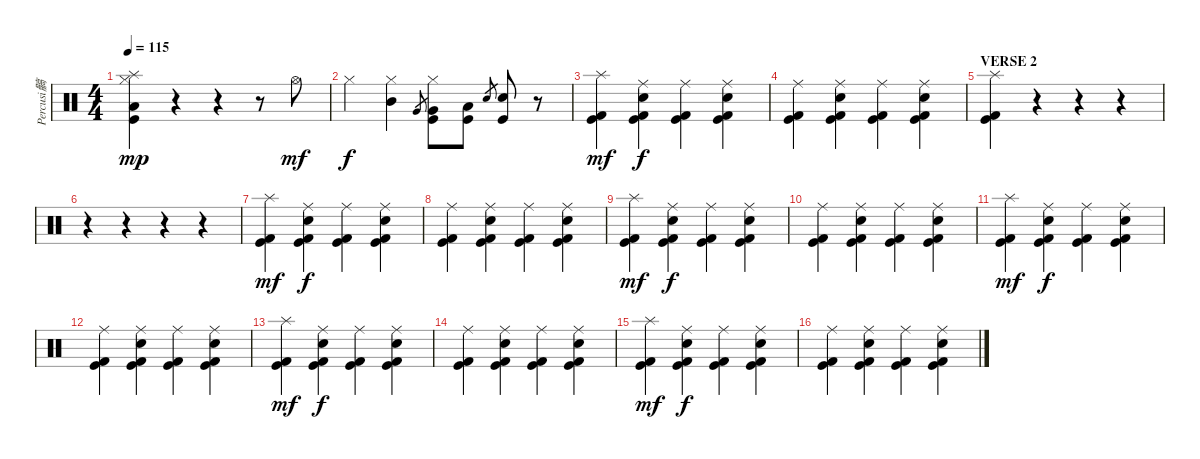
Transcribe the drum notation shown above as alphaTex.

\track ("Percusi髇" "Percusi髇") {instrument percussion}
\staff {score}
\articulation defaults
\ts (4 4)
\tempo 115
\clef neutral
\ks c
("Splash (hit)" "Hi-Hat (closed)" "Low Tom (hit)" "Kick (hit)").4{dy mp} r.4 r.4 r.8 "Hi-Hat (open)".8{dy mf} |
"Hi-Hat (closed)".4{dy f} ("Hi-Hat (closed)" "Mid Tom (hit)").4 "Very Low Tom (hit)".8{gr} ("Hi-Hat (closed)" "Very Low Tom (hit)" "Kick (hit)").8 ("Low Tom (hit)" "Kick (hit)").8 "Electric Snare (hit)".8{gr} ("Electric Snare (hit)" "Kick (hit)").8 r.8 |
("Splash (hit)" "Kick (hit) 2" "Kick (hit)").4{dy mf} ("Ride (middle)" "Electric Snare (hit)" "Kick (hit) 2" "Kick (hit)").4{dy f} ("Ride (middle)" "Kick (hit) 2" "Kick (hit)").4 ("Ride (middle)" "Electric Snare (hit)" "Kick (hit) 2" "Kick (hit)").4 |
("Ride (middle)" "Kick (hit) 2" "Kick (hit)").4 ("Ride (middle)" "Electric Snare (hit)" "Kick (hit) 2" "Kick (hit)").4 ("Ride (middle)" "Kick (hit) 2" "Kick (hit)").4 ("Ride (middle)" "Electric Snare (hit)" "Kick (hit) 2" "Kick (hit)").4 |
\section ("" "VERSE 2")
("Kick (hit)" "Kick (hit) 2" "Splash (hit)").4 r.4 r.4 r.4 |
r.4 r.4 r.4 r.4 |
("Splash (hit)" "Kick (hit) 2" "Kick (hit)").4{dy mf} ("Ride (middle)" "Electric Snare (hit)" "Kick (hit) 2" "Kick (hit)").4{dy f} ("Ride (middle)" "Kick (hit) 2" "Kick (hit)").4 ("Ride (middle)" "Electric Snare (hit)" "Kick (hit) 2" "Kick (hit)").4 |
("Ride (middle)" "Kick (hit) 2" "Kick (hit)").4 ("Ride (middle)" "Electric Snare (hit)" "Kick (hit) 2" "Kick (hit)").4 ("Ride (middle)" "Kick (hit) 2" "Kick (hit)").4 ("Ride (middle)" "Electric Snare (hit)" "Kick (hit) 2" "Kick (hit)").4 |
("Splash (hit)" "Kick (hit) 2" "Kick (hit)").4{dy mf} ("Ride (middle)" "Electric Snare (hit)" "Kick (hit) 2" "Kick (hit)").4{dy f} ("Ride (middle)" "Kick (hit) 2" "Kick (hit)").4 ("Ride (middle)" "Electric Snare (hit)" "Kick (hit) 2" "Kick (hit)").4 |
("Ride (middle)" "Kick (hit) 2" "Kick (hit)").4 ("Ride (middle)" "Electric Snare (hit)" "Kick (hit) 2" "Kick (hit)").4 ("Ride (middle)" "Kick (hit) 2" "Kick (hit)").4 ("Ride (middle)" "Electric Snare (hit)" "Kick (hit) 2" "Kick (hit)").4 |
("Splash (hit)" "Kick (hit) 2" "Kick (hit)").4{dy mf} ("Ride (middle)" "Electric Snare (hit)" "Kick (hit) 2" "Kick (hit)").4{dy f} ("Ride (middle)" "Kick (hit) 2" "Kick (hit)").4 ("Ride (middle)" "Electric Snare (hit)" "Kick (hit) 2" "Kick (hit)").4 |
("Ride (middle)" "Kick (hit) 2" "Kick (hit)").4 ("Ride (middle)" "Electric Snare (hit)" "Kick (hit) 2" "Kick (hit)").4 ("Ride (middle)" "Kick (hit) 2" "Kick (hit)").4 ("Ride (middle)" "Electric Snare (hit)" "Kick (hit) 2" "Kick (hit)").4 |
("Splash (hit)" "Kick (hit) 2" "Kick (hit)").4{dy mf} ("Ride (middle)" "Electric Snare (hit)" "Kick (hit) 2" "Kick (hit)").4{dy f} ("Ride (middle)" "Kick (hit) 2" "Kick (hit)").4 ("Ride (middle)" "Electric Snare (hit)" "Kick (hit) 2" "Kick (hit)").4 |
("Ride (middle)" "Kick (hit) 2" "Kick (hit)").4 ("Ride (middle)" "Electric Snare (hit)" "Kick (hit) 2" "Kick (hit)").4 ("Ride (middle)" "Kick (hit) 2" "Kick (hit)").4 ("Ride (middle)" "Electric Snare (hit)" "Kick (hit) 2" "Kick (hit)").4 |
("Splash (hit)" "Kick (hit) 2" "Kick (hit)").4{dy mf} ("Ride (middle)" "Electric Snare (hit)" "Kick (hit) 2" "Kick (hit)").4{dy f} ("Ride (middle)" "Kick (hit) 2" "Kick (hit)").4 ("Ride (middle)" "Electric Snare (hit)" "Kick (hit) 2" "Kick (hit)").4 |
("Ride (middle)" "Kick (hit) 2" "Kick (hit)").4 ("Ride (middle)" "Electric Snare (hit)" "Kick (hit) 2" "Kick (hit)").4 ("Ride (middle)" "Kick (hit) 2" "Kick (hit)").4 ("Ride (middle)" "Electric Snare (hit)" "Kick (hit) 2" "Kick (hit)").4
